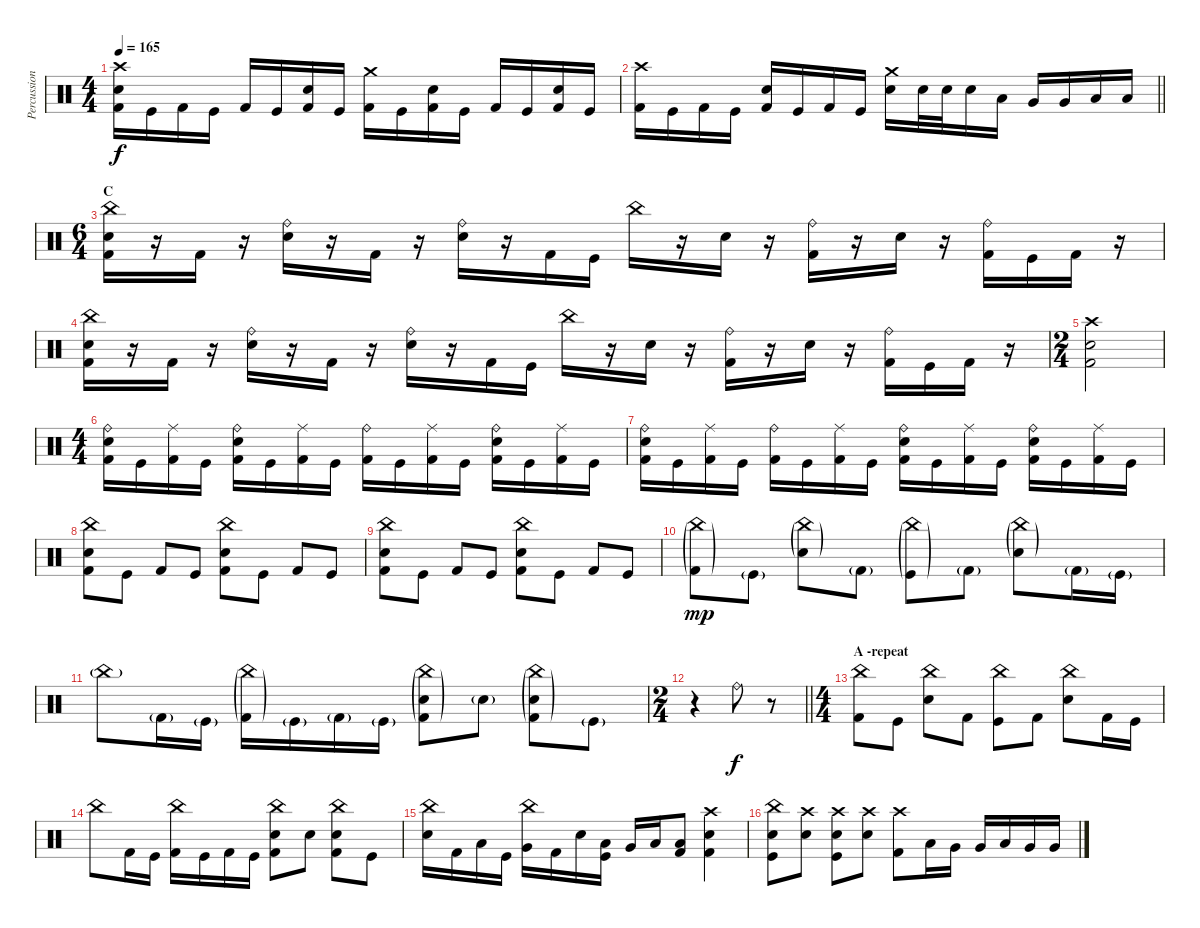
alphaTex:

\track ("Percussion" "Percussion") {instrument percussion}
\staff {score}
\articulation defaults
\ts (4 4)
\tempo 165
\clef neutral
\ks c
("Crash high (hit)" "Electric Snare (hit)" "Kick (hit) 2").16{dy f} "Kick (hit)".16 "Kick (hit) 2".16 "Kick (hit)".16 "Kick (hit) 2".16 "Kick (hit)".16 ("Electric Snare (hit)" "Kick (hit) 2").16 "Kick (hit)".16 ("Crash medium (hit)" "Kick (hit) 2").16 "Kick (hit)".16 ("Electric Snare (hit)" "Kick (hit) 2").16 "Kick (hit)".16 "Kick (hit) 2".16 "Kick (hit)".16 ("Electric Snare (hit)" "Kick (hit) 2").16 "Kick (hit)".16 |
\barLineRight lightlight
("Crash high (hit)" "Kick (hit) 2").16 "Kick (hit)".16 "Kick (hit) 2".16 "Kick (hit)".16 ("Electric Snare (hit)" "Kick (hit) 2").16 "Kick (hit)".16 "Kick (hit) 2".16 "Kick (hit)".16 ("Crash medium (hit)" "Electric Snare (hit)").16 "Electric Snare (hit)".32 "Electric Snare (hit)".32 "Electric Snare (hit)".16 "Low Tom (hit)".16 "Very Low Tom (hit)".16 "Very Low Tom (hit)".16 "Low Floor Tom (hit)".16 "Low Floor Tom (hit)".16 |
\ts (6 4)
\section ("" "C")
("China (hit)" "Electric Snare (hit)" "Kick (hit) 2").16 r.16 "Kick (hit) 2".16 r.16 ("Ride (bell)" "Electric Snare (hit)").16 r.16 "Kick (hit) 2".16 r.16 ("Ride (bell)" "Electric Snare (hit)").16 r.16 "Kick (hit) 2".16 "Kick (hit)".16 "China (hit)".16 r.16 "Electric Snare (hit)".16 r.16 ("Ride (bell)" "Kick (hit) 2").16 r.16 "Electric Snare (hit)".16 r.16 ("Ride (bell)" "Kick (hit) 2").16 "Kick (hit)".16 "Kick (hit) 2".16 r.16 |
("China (hit)" "Electric Snare (hit)" "Kick (hit) 2").16 r.16 "Kick (hit) 2".16 r.16 ("Ride (bell)" "Electric Snare (hit)").16 r.16 "Kick (hit) 2".16 r.16 ("Ride (bell)" "Electric Snare (hit)").16 r.16 "Kick (hit) 2".16 "Kick (hit)".16 "China (hit)".16 r.16 "Electric Snare (hit)".16 r.16 ("Ride (bell)" "Kick (hit) 2").16 r.16 "Electric Snare (hit)".16 r.16 ("Ride (bell)" "Kick (hit) 2").16 "Kick (hit)".16 "Kick (hit) 2".16 r.16 |
\ts (2 4)
("Crash high (hit)" "Electric Snare (hit)" "Kick (hit) 2").2 |
\ts (4 4)
("Ride (bell)" "Electric Snare (hit)" "Kick (hit) 2").16 "Kick (hit)".16 ("Ride (middle)" "Kick (hit) 2").16 "Kick (hit)".16 ("Ride (bell)" "Electric Snare (hit)" "Kick (hit) 2").16 "Kick (hit)".16 ("Ride (middle)" "Kick (hit) 2").16 "Kick (hit)".16 ("Ride (bell)" "Kick (hit) 2").16 "Kick (hit)".16 ("Ride (middle)" "Kick (hit) 2").16 "Kick (hit)".16 ("Ride (bell)" "Electric Snare (hit)" "Kick (hit) 2").16 "Kick (hit)".16 ("Ride (middle)" "Kick (hit) 2").16 "Kick (hit)".16 |
("Ride (bell)" "Electric Snare (hit)" "Kick (hit) 2").16 "Kick (hit)".16 ("Ride (middle)" "Kick (hit) 2").16 "Kick (hit)".16 ("Ride (bell)" "Kick (hit) 2").16 "Kick (hit)".16 ("Ride (middle)" "Kick (hit) 2").16 "Kick (hit)".16 ("Ride (bell)" "Electric Snare (hit)" "Kick (hit) 2").16 "Kick (hit)".16 ("Ride (middle)" "Kick (hit) 2").16 "Kick (hit)".16 ("Ride (bell)" "Electric Snare (hit)" "Kick (hit) 2").16 "Kick (hit)".16 ("Ride (middle)" "Kick (hit) 2").16 "Kick (hit)".16 |
("China (hit)" "Electric Snare (hit)" "Kick (hit) 2").8 "Kick (hit)".8 "Kick (hit) 2".8 "Kick (hit)".8 ("China (hit)" "Electric Snare (hit)" "Kick (hit) 2").8 "Kick (hit)".8 "Kick (hit) 2".8 "Kick (hit)".8 |
("China (hit)" "Electric Snare (hit)" "Kick (hit) 2").8 "Kick (hit)".8 "Kick (hit) 2".8 "Kick (hit)".8 ("China (hit)" "Electric Snare (hit)" "Kick (hit) 2").8 "Kick (hit)".8 "Kick (hit) 2".8 "Kick (hit)".8 |
("China (hit)"{g} "Kick (hit) 2"{g}).8{dy mp} "Kick (hit)"{g}.8 ("China (hit)"{g} "Electric Snare (hit)"{g}).8 "Kick (hit) 2"{g}.8 ("China (hit)"{g} "Kick (hit)"{g}).8 "Kick (hit) 2"{g}.8 ("China (hit)"{g} "Electric Snare (hit)"{g}).8 "Kick (hit) 2"{g}.16 "Kick (hit)"{g}.16 |
"China (hit)"{g}.8 "Kick (hit) 2"{g}.16 "Kick (hit)"{g}.16 ("China (hit)"{g} "Kick (hit) 2"{g}).16 "Kick (hit)"{g}.16 "Kick (hit) 2"{g}.16 "Kick (hit)"{g}.16 ("China (hit)"{g} "Electric Snare (hit)"{g} "Kick (hit) 2"{g}).8 "Electric Snare (hit)"{g}.8 ("China (hit)"{g} "Electric Snare (hit)"{g} "Kick (hit) 2"{g}).8 "Kick (hit)"{g}.8 |
\ts (2 4)
\barLineRight lightlight
r.4 "Ride (bell)".8{dy f} r.8 |
\ts (4 4)
\section ("" "A -repeat")
("China (hit)" "Kick (hit) 2").8 "Kick (hit)".8 ("China (hit)" "Electric Snare (hit)").8 "Kick (hit) 2".8 ("China (hit)" "Kick (hit)").8 "Kick (hit) 2".8 ("China (hit)" "Electric Snare (hit)").8 "Kick (hit) 2".16 "Kick (hit)".16 |
"China (hit)".8 "Kick (hit) 2".16 "Kick (hit)".16 ("China (hit)" "Kick (hit) 2").16 "Kick (hit)".16 "Kick (hit) 2".16 "Kick (hit)".16 ("China (hit)" "Electric Snare (hit)" "Kick (hit) 2").8 "Electric Snare (hit)".8 ("China (hit)" "Electric Snare (hit)" "Kick (hit) 2").8 "Kick (hit)".8 |
("China (hit)" "Electric Snare (hit)").16 "Kick (hit) 2".16 "Low Tom (hit)".16 "Kick (hit)".16 ("China (hit)" "Very Low Tom (hit)").16 "Kick (hit) 2".16 "Electric Snare (hit)".16 ("Low Tom (hit)" "Kick (hit)").16 "Very Low Tom (hit)".16 "Low Floor Tom (hit)".16 ("Low Tom (hit)" "Kick (hit) 2").8 ("Crash high (hit)" "Electric Snare (hit)" "Kick (hit) 2").4 |
("China (hit)" "Electric Snare (hit)" "Kick (hit)").8 ("Crash high (hit)" "Electric Snare (hit)").8 ("Crash high (hit)" "Electric Snare (hit)" "Kick (hit)").8 ("Crash high (hit)" "Electric Snare (hit)").8 ("Crash high (hit)" "Kick (hit) 2").8 "Low Tom (hit)".16 "Very Low Tom (hit)".16 "Very Low Tom (hit)".16 "Low Tom (hit)".16 "Very Low Tom (hit)".16 "Very Low Tom (hit)".16
